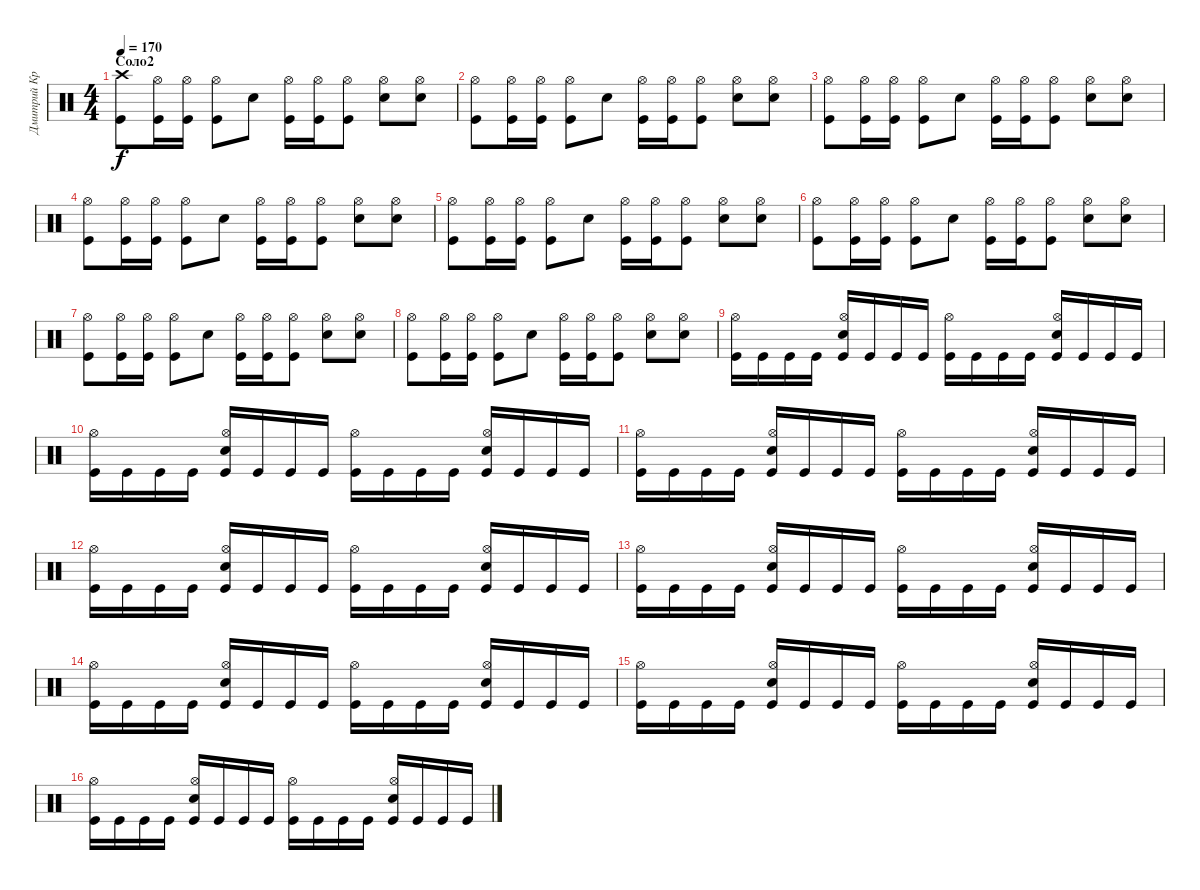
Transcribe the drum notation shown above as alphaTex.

\track ("Дмитрий Кривенков" "Дмитрий Кр") {instrument percussion}
\staff {score}
\articulation defaults
\ts (4 4)
\section ("" "Соло2")
\tempo 170
\clef neutral
\ks c
("Crash high (hit)" "Kick (hit)").8{dy f} ("Hi-Hat (open)" "Kick (hit)").16 ("Hi-Hat (open)" "Kick (hit)").16 ("Hi-Hat (open)" "Kick (hit)").8 "Snare (hit) 2".8 ("Hi-Hat (open)" "Kick (hit)").16 ("Hi-Hat (open)" "Kick (hit)").16 ("Hi-Hat (open)" "Kick (hit)").8 ("Hi-Hat (open)" "Snare (hit) 2").8 ("Hi-Hat (open)" "Snare (hit) 2").8 |
("Hi-Hat (open)" "Kick (hit)").8 ("Hi-Hat (open)" "Kick (hit)").16 ("Hi-Hat (open)" "Kick (hit)").16 ("Hi-Hat (open)" "Kick (hit)").8 "Snare (hit) 2".8 ("Hi-Hat (open)" "Kick (hit)").16 ("Hi-Hat (open)" "Kick (hit)").16 ("Hi-Hat (open)" "Kick (hit)").8 ("Hi-Hat (open)" "Snare (hit) 2").8 ("Hi-Hat (open)" "Snare (hit) 2").8 |
("Hi-Hat (open)" "Kick (hit)").8 ("Hi-Hat (open)" "Kick (hit)").16 ("Hi-Hat (open)" "Kick (hit)").16 ("Hi-Hat (open)" "Kick (hit)").8 "Snare (hit) 2".8 ("Hi-Hat (open)" "Kick (hit)").16 ("Hi-Hat (open)" "Kick (hit)").16 ("Hi-Hat (open)" "Kick (hit)").8 ("Hi-Hat (open)" "Snare (hit) 2").8 ("Hi-Hat (open)" "Snare (hit) 2").8 |
("Hi-Hat (open)" "Kick (hit)").8 ("Hi-Hat (open)" "Kick (hit)").16 ("Hi-Hat (open)" "Kick (hit)").16 ("Hi-Hat (open)" "Kick (hit)").8 "Snare (hit) 2".8 ("Hi-Hat (open)" "Kick (hit)").16 ("Hi-Hat (open)" "Kick (hit)").16 ("Hi-Hat (open)" "Kick (hit)").8 ("Hi-Hat (open)" "Snare (hit) 2").8 ("Hi-Hat (open)" "Snare (hit) 2").8 |
("Hi-Hat (open)" "Kick (hit)").8 ("Hi-Hat (open)" "Kick (hit)").16 ("Hi-Hat (open)" "Kick (hit)").16 ("Hi-Hat (open)" "Kick (hit)").8 "Snare (hit) 2".8 ("Hi-Hat (open)" "Kick (hit)").16 ("Hi-Hat (open)" "Kick (hit)").16 ("Hi-Hat (open)" "Kick (hit)").8 ("Hi-Hat (open)" "Snare (hit) 2").8 ("Hi-Hat (open)" "Snare (hit) 2").8 |
("Hi-Hat (open)" "Kick (hit)").8 ("Hi-Hat (open)" "Kick (hit)").16 ("Hi-Hat (open)" "Kick (hit)").16 ("Hi-Hat (open)" "Kick (hit)").8 "Snare (hit) 2".8 ("Hi-Hat (open)" "Kick (hit)").16 ("Hi-Hat (open)" "Kick (hit)").16 ("Hi-Hat (open)" "Kick (hit)").8 ("Hi-Hat (open)" "Snare (hit) 2").8 ("Hi-Hat (open)" "Snare (hit) 2").8 |
("Hi-Hat (open)" "Kick (hit)").8 ("Hi-Hat (open)" "Kick (hit)").16 ("Hi-Hat (open)" "Kick (hit)").16 ("Hi-Hat (open)" "Kick (hit)").8 "Snare (hit) 2".8 ("Hi-Hat (open)" "Kick (hit)").16 ("Hi-Hat (open)" "Kick (hit)").16 ("Hi-Hat (open)" "Kick (hit)").8 ("Hi-Hat (open)" "Snare (hit) 2").8 ("Hi-Hat (open)" "Snare (hit) 2").8 |
("Hi-Hat (open)" "Kick (hit)").8 ("Hi-Hat (open)" "Kick (hit)").16 ("Hi-Hat (open)" "Kick (hit)").16 ("Hi-Hat (open)" "Kick (hit)").8 "Snare (hit) 2".8 ("Hi-Hat (open)" "Kick (hit)").16 ("Hi-Hat (open)" "Kick (hit)").16 ("Hi-Hat (open)" "Kick (hit)").8 ("Hi-Hat (open)" "Snare (hit) 2").8 ("Hi-Hat (open)" "Snare (hit) 2").8 |
("Hi-Hat (open)" "Kick (hit)").16 "Kick (hit)".16 "Kick (hit)".16 "Kick (hit)".16 ("Hi-Hat (open)" "Snare (hit) 2" "Kick (hit)").16 "Kick (hit)".16 "Kick (hit)".16 "Kick (hit)".16 ("Hi-Hat (open)" "Kick (hit)").16 "Kick (hit)".16 "Kick (hit)".16 "Kick (hit)".16 ("Hi-Hat (open)" "Snare (hit) 2" "Kick (hit)").16 "Kick (hit)".16 "Kick (hit)".16 "Kick (hit)".16 |
("Hi-Hat (open)" "Kick (hit)").16 "Kick (hit)".16 "Kick (hit)".16 "Kick (hit)".16 ("Hi-Hat (open)" "Snare (hit) 2" "Kick (hit)").16 "Kick (hit)".16 "Kick (hit)".16 "Kick (hit)".16 ("Hi-Hat (open)" "Kick (hit)").16 "Kick (hit)".16 "Kick (hit)".16 "Kick (hit)".16 ("Hi-Hat (open)" "Snare (hit) 2" "Kick (hit)").16 "Kick (hit)".16 "Kick (hit)".16 "Kick (hit)".16 |
("Hi-Hat (open)" "Kick (hit)").16 "Kick (hit)".16 "Kick (hit)".16 "Kick (hit)".16 ("Hi-Hat (open)" "Snare (hit) 2" "Kick (hit)").16 "Kick (hit)".16 "Kick (hit)".16 "Kick (hit)".16 ("Hi-Hat (open)" "Kick (hit)").16 "Kick (hit)".16 "Kick (hit)".16 "Kick (hit)".16 ("Hi-Hat (open)" "Snare (hit) 2" "Kick (hit)").16 "Kick (hit)".16 "Kick (hit)".16 "Kick (hit)".16 |
("Hi-Hat (open)" "Kick (hit)").16 "Kick (hit)".16 "Kick (hit)".16 "Kick (hit)".16 ("Hi-Hat (open)" "Snare (hit) 2" "Kick (hit)").16 "Kick (hit)".16 "Kick (hit)".16 "Kick (hit)".16 ("Hi-Hat (open)" "Kick (hit)").16 "Kick (hit)".16 "Kick (hit)".16 "Kick (hit)".16 ("Hi-Hat (open)" "Snare (hit) 2" "Kick (hit)").16 "Kick (hit)".16 "Kick (hit)".16 "Kick (hit)".16 |
("Hi-Hat (open)" "Kick (hit)").16 "Kick (hit)".16 "Kick (hit)".16 "Kick (hit)".16 ("Hi-Hat (open)" "Snare (hit) 2" "Kick (hit)").16 "Kick (hit)".16 "Kick (hit)".16 "Kick (hit)".16 ("Hi-Hat (open)" "Kick (hit)").16 "Kick (hit)".16 "Kick (hit)".16 "Kick (hit)".16 ("Hi-Hat (open)" "Snare (hit) 2" "Kick (hit)").16 "Kick (hit)".16 "Kick (hit)".16 "Kick (hit)".16 |
("Hi-Hat (open)" "Kick (hit)").16 "Kick (hit)".16 "Kick (hit)".16 "Kick (hit)".16 ("Hi-Hat (open)" "Snare (hit) 2" "Kick (hit)").16 "Kick (hit)".16 "Kick (hit)".16 "Kick (hit)".16 ("Hi-Hat (open)" "Kick (hit)").16 "Kick (hit)".16 "Kick (hit)".16 "Kick (hit)".16 ("Hi-Hat (open)" "Snare (hit) 2" "Kick (hit)").16 "Kick (hit)".16 "Kick (hit)".16 "Kick (hit)".16 |
("Hi-Hat (open)" "Kick (hit)").16 "Kick (hit)".16 "Kick (hit)".16 "Kick (hit)".16 ("Hi-Hat (open)" "Snare (hit) 2" "Kick (hit)").16 "Kick (hit)".16 "Kick (hit)".16 "Kick (hit)".16 ("Hi-Hat (open)" "Kick (hit)").16 "Kick (hit)".16 "Kick (hit)".16 "Kick (hit)".16 ("Hi-Hat (open)" "Snare (hit) 2" "Kick (hit)").16 "Kick (hit)".16 "Kick (hit)".16 "Kick (hit)".16 |
("Hi-Hat (open)" "Kick (hit)").16 "Kick (hit)".16 "Kick (hit)".16 "Kick (hit)".16 ("Hi-Hat (open)" "Snare (hit) 2" "Kick (hit)").16 "Kick (hit)".16 "Kick (hit)".16 "Kick (hit)".16 ("Hi-Hat (open)" "Kick (hit)").16 "Kick (hit)".16 "Kick (hit)".16 "Kick (hit)".16 ("Hi-Hat (open)" "Snare (hit) 2" "Kick (hit)").16 "Kick (hit)".16 "Kick (hit)".16 "Kick (hit)".16
